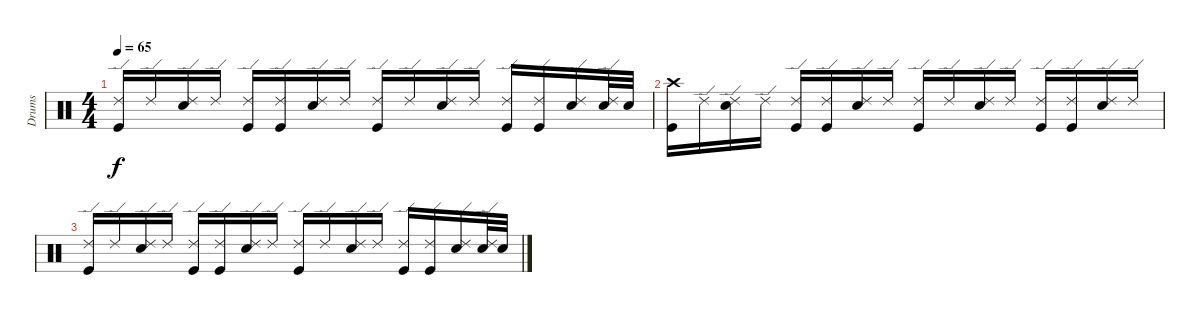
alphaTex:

\track ("Drums" "Drums") {instrument percussion}
\staff {score}
\articulation defaults
\ts (4 4)
\tempo 65
\clef neutral
\ks c
("Ride (edge) 2" "Kick (hit)").16{dy f} "Ride (edge) 2".16 ("Ride (edge) 2" "Snare (hit) 2").16 "Ride (edge) 2".16 ("Ride (edge) 2" "Kick (hit)").16 ("Ride (edge) 2" "Kick (hit)").16 ("Ride (edge) 2" "Snare (hit) 2").16 "Ride (edge) 2".16 ("Ride (edge) 2" "Kick (hit)").16 "Ride (edge) 2".16 ("Ride (edge) 2" "Snare (hit) 2").16 "Ride (edge) 2".16 ("Ride (edge) 2" "Kick (hit)").16 ("Ride (edge) 2" "Kick (hit)").16 ("Ride (edge) 2" "Snare (hit) 2").16 ("Ride (edge) 2" "Snare (hit) 2").32 "Snare (hit) 2".32 |
("Crash high (hit)" "Kick (hit)").16 "Ride (edge) 2".16 ("Ride (edge) 2" "Snare (hit) 2").16 "Ride (edge) 2".16 ("Ride (edge) 2" "Kick (hit)").16 ("Ride (edge) 2" "Kick (hit)").16 ("Ride (edge) 2" "Snare (hit) 2").16 "Ride (edge) 2".16 ("Ride (edge) 2" "Kick (hit)").16 "Ride (edge) 2".16 ("Ride (edge) 2" "Snare (hit) 2").16 "Ride (edge) 2".16 ("Ride (edge) 2" "Kick (hit)").16 ("Ride (edge) 2" "Kick (hit)").16 ("Ride (edge) 2" "Snare (hit) 2").16 "Ride (edge) 2".16 |
("Ride (edge) 2" "Kick (hit)").16 "Ride (edge) 2".16 ("Ride (edge) 2" "Snare (hit) 2").16 "Ride (edge) 2".16 ("Ride (edge) 2" "Kick (hit)").16 ("Ride (edge) 2" "Kick (hit)").16 ("Ride (edge) 2" "Snare (hit) 2").16 "Ride (edge) 2".16 ("Ride (edge) 2" "Kick (hit)").16 "Ride (edge) 2".16 ("Ride (edge) 2" "Snare (hit) 2").16 "Ride (edge) 2".16 ("Ride (edge) 2" "Kick (hit)").16 ("Ride (edge) 2" "Kick (hit)").16 ("Ride (edge) 2" "Snare (hit) 2").16 ("Ride (edge) 2" "Snare (hit) 2").32 "Snare (hit) 2".32
